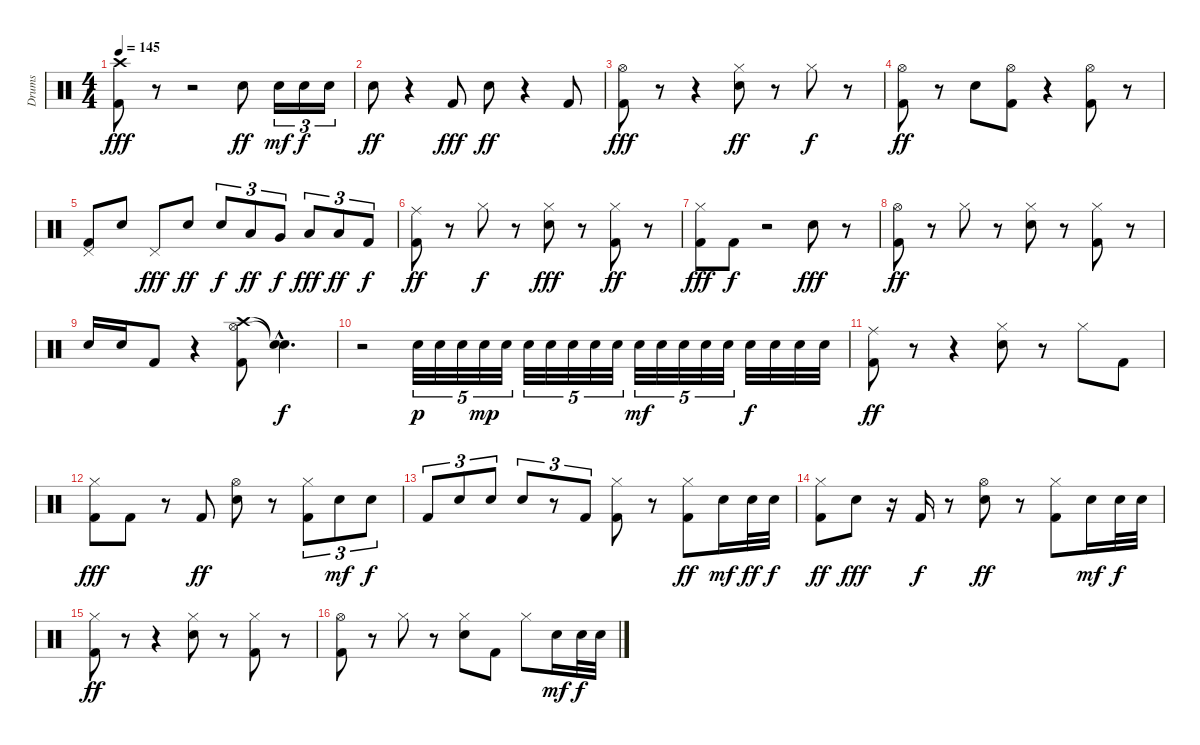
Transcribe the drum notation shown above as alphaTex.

\track ("Drums" "Drums") {instrument percussion}
\staff {score}
\articulation defaults
\ts (4 4)
\tempo 145
\clef neutral
\ks c
("Crash high (hit)" "Kick (hit) 2").8{dy fff} r.8 r.2 "Snare (hit) 2".8{dy ff} "Snare (hit) 2".16{tu (3 2) dy mf} "Snare (hit) 2".16{tu (3 2) dy f} "Snare (hit) 2".16{tu (3 2)} |
"Snare (hit) 2".8{dy ff} r.4 "Kick (hit) 2".8{dy fff} "Snare (hit) 2".8{dy ff} r.4 "Kick (hit) 2".8 |
("Hi-Hat (open)" "Kick (hit) 2").8{dy fff} r.8 r.4 ("Hi-Hat (closed)" "Snare (hit) 2").8{dy ff} r.8 "Hi-Hat (closed)".8{dy f} r.8 |
("Hi-Hat (open)" "Kick (hit) 2").8{dy ff} r.8 "Snare (hit) 2".8 ("Hi-Hat (open)" "Kick (hit) 2").8 r.4 ("Hi-Hat (open)" "Kick (hit) 2").8 r.8 |
("Pedal Hi-Hat (hit)" "Kick (hit) 2").8 "Snare (hit) 2".8 "Pedal Hi-Hat (hit)".8{dy fff} "Snare (hit) 2".8{dy ff} "Snare (hit) 2".8{tu (3 2) dy f} "Low Tom (hit)".8{tu (3 2) dy ff} "Very Low Tom (hit)".8{tu (3 2) dy f} "Low Tom (hit)".8{tu (3 2) dy fff} "Low Floor Tom (hit)".8{tu (3 2) dy ff} "Kick (hit) 2".8{tu (3 2) dy f} |
("Ride (middle)" "Kick (hit) 2").8{dy ff} r.8 "Hi-Hat (closed)".8{dy f} r.8 ("Hi-Hat (closed)" "Snare (hit) 2").8{dy fff} r.8 ("Hi-Hat (closed)" "Kick (hit) 2").8{dy ff} r.8 |
("Hi-Hat (closed)" "Kick (hit) 2").8{dy fff} "Kick (hit) 2".8{dy f} r.2 "Snare (hit) 2".8{dy fff} r.8 |
("Hi-Hat (open)" "Kick (hit) 2").8{dy ff} r.8 "Hi-Hat (closed)".8 r.8 ("Hi-Hat (closed)" "Snare (hit) 2").8 r.8 ("Hi-Hat (closed)" "Kick (hit) 2").8 r.8 |
"Snare (hit) 2".16 "Snare (hit) 2".16 "Kick (hit) 2".8 r.4 ("Hi-Hat (open)" "Crash high (hit)" "Kick (hit) 2").8 ("Snare (hit)"{hac t} "Snare (hit)"{hac t}).4{d dy f} |
r.2 "Snare (hit) 2".32{tu (5 4) dy p} "Snare (hit) 2".32{tu (5 4)} "Snare (hit) 2".32{tu (5 4)} "Snare (hit) 2".32{tu (5 4) dy mp} "Snare (hit) 2".32{tu (5 4)} "Snare (hit) 2".32{tu (5 4)} "Snare (hit) 2".32{tu (5 4)} "Snare (hit) 2".32{tu (5 4)} "Snare (hit) 2".32{tu (5 4)} "Snare (hit) 2".32{tu (5 4)} "Snare (hit) 2".32{tu (5 4) dy mf} "Snare (hit) 2".32{tu (5 4)} "Snare (hit) 2".32{tu (5 4)} "Snare (hit) 2".32{tu (5 4)} "Snare (hit) 2".32{tu (5 4)} "Snare (hit) 2".32{dy f} "Snare (hit) 2".32 "Snare (hit) 2".32 "Snare (hit) 2".32 |
("Ride (middle)" "Kick (hit) 2").8{dy ff} r.8 r.4 ("Hi-Hat (closed)" "Snare (hit) 2").8 r.8 "Hi-Hat (closed)".8 "Kick (hit) 2".8 |
("Hi-Hat (closed)" "Kick (hit) 2").8{dy fff} "Kick (hit) 2".8 r.8 "Kick (hit) 2".8{dy ff} ("Hi-Hat (open)" "Snare (hit) 2").8 r.8 ("Hi-Hat (closed)" "Kick (hit) 2").8{tu (3 2)} "Snare (hit) 2".8{tu (3 2) dy mf} "Snare (hit) 2".8{tu (3 2) dy f} |
"Kick (hit) 2".8{tu (3 2)} "Snare (hit) 2".8{tu (3 2)} "Snare (hit) 2".8{tu (3 2)} "Snare (hit) 2".8{tu (3 2)} r.8{tu (3 2)} "Kick (hit) 2".8{tu (3 2)} ("Hi-Hat (closed)" "Kick (hit) 2").8 r.8 ("Hi-Hat (closed)" "Kick (hit) 2").8{dy ff} "Snare (hit) 2".16{dy mf} "Snare (hit) 2".32{dy ff} "Snare (hit) 2".32{dy f} |
("Hi-Hat (closed)" "Kick (hit) 2").8{dy ff} "Snare (hit) 2".8{dy fff} r.16 "Kick (hit) 2".16{dy f} r.8 ("Hi-Hat (open)" "Snare (hit) 2").8{dy ff} r.8 ("Hi-Hat (closed)" "Kick (hit) 2").8 "Snare (hit) 2".16{dy mf} "Snare (hit) 2".32{dy f} "Snare (hit) 2".32 |
("Hi-Hat (closed)" "Kick (hit) 2").8{dy ff} r.8 r.4 ("Hi-Hat (closed)" "Snare (hit) 2").8 r.8 ("Hi-Hat (closed)" "Kick (hit) 2").8 r.8 |
("Hi-Hat (open)" "Kick (hit) 2").8 r.8 "Hi-Hat (closed)".8 r.8 ("Hi-Hat (closed)" "Snare (hit) 2").8 "Kick (hit) 2".8 "Hi-Hat (closed)".8 "Snare (hit) 2".16{dy mf} "Snare (hit) 2".32{dy f} "Snare (hit) 2".32
